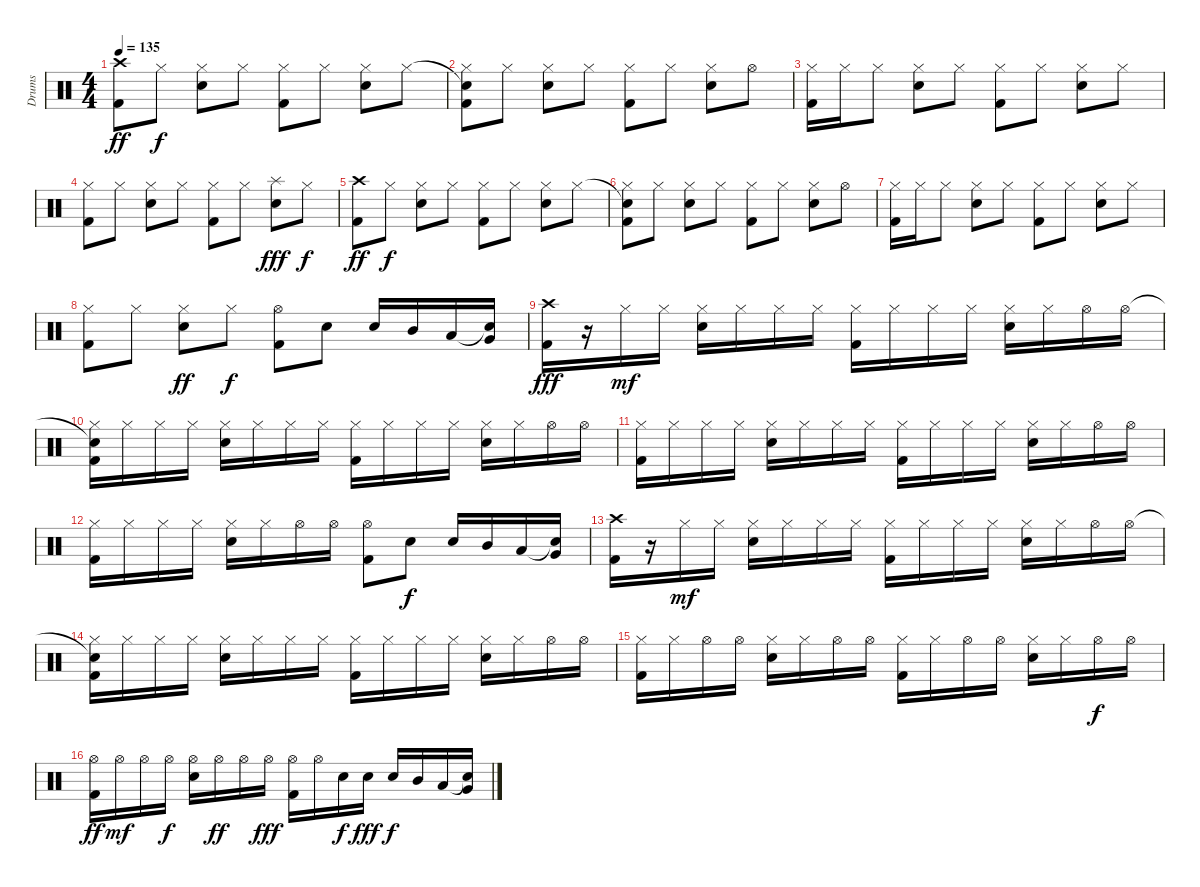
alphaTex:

\track ("Drums" "Drums") {instrument percussion}
\staff {score}
\articulation defaults
\ts (4 4)
\tempo 135
\clef neutral
\ks c
("Crash high (hit)" "Kick (hit) 2").8{dy ff} "Hi-Hat (closed)".8{dy f} ("Hi-Hat (closed)" "Snare (hit) 2").8 "Hi-Hat (closed)".8 ("Hi-Hat (closed)" "Kick (hit) 2").8 "Hi-Hat (closed)".8 ("Hi-Hat (closed)" "Snare (hit) 2").8 "Hi-Hat (closed)".8 |
("Snare (hit)"{t} "Hi-Hat (closed)" "Kick (hit) 2").8 "Hi-Hat (closed)".8 ("Hi-Hat (closed)" "Snare (hit) 2").8 "Hi-Hat (closed)".8 ("Hi-Hat (closed)" "Kick (hit) 2").8 "Hi-Hat (closed)".8 ("Hi-Hat (closed)" "Snare (hit) 2").8 "Hi-Hat (open)".8 |
("Hi-Hat (closed)" "Kick (hit) 2").16 "Hi-Hat (closed)".16 "Hi-Hat (closed)".8 ("Hi-Hat (closed)" "Snare (hit) 2").8 "Hi-Hat (closed)".8 ("Hi-Hat (closed)" "Kick (hit) 2").8 "Hi-Hat (closed)".8 ("Hi-Hat (closed)" "Snare (hit) 2").8 "Hi-Hat (closed)".8 |
("Hi-Hat (closed)" "Kick (hit) 2").8 "Hi-Hat (closed)".8 ("Hi-Hat (closed)" "Snare (hit) 2").8 "Hi-Hat (closed)".8 ("Hi-Hat (closed)" "Kick (hit) 2").8 "Hi-Hat (closed)".8 ("Splash (hit)" "Snare (hit) 2").8{dy fff} "Hi-Hat (closed)".8{dy f} |
("Crash high (hit)" "Kick (hit) 2").8{dy ff} "Hi-Hat (closed)".8{dy f} ("Hi-Hat (closed)" "Snare (hit) 2").8 "Hi-Hat (closed)".8 ("Hi-Hat (closed)" "Kick (hit) 2").8 "Hi-Hat (closed)".8 ("Hi-Hat (closed)" "Snare (hit) 2").8 "Hi-Hat (closed)".8 |
("Snare (hit)"{t} "Hi-Hat (closed)" "Kick (hit) 2").8 "Hi-Hat (closed)".8 ("Hi-Hat (closed)" "Snare (hit) 2").8 "Hi-Hat (closed)".8 ("Hi-Hat (closed)" "Kick (hit) 2").8 "Hi-Hat (closed)".8 ("Hi-Hat (closed)" "Snare (hit) 2").8 "Hi-Hat (open)".8 |
("Hi-Hat (closed)" "Kick (hit) 2").16 "Hi-Hat (closed)".16 "Hi-Hat (closed)".8 ("Hi-Hat (closed)" "Snare (hit) 2").8 "Hi-Hat (closed)".8 ("Hi-Hat (closed)" "Kick (hit) 2").8 "Hi-Hat (closed)".8 ("Hi-Hat (closed)" "Snare (hit) 2").8 "Hi-Hat (closed)".8 |
("Hi-Hat (closed)" "Kick (hit) 2").8 "Hi-Hat (closed)".8 ("Hi-Hat (closed)" "Snare (hit) 2").8{dy ff} "Hi-Hat (closed)".8{dy f} ("Hi-Hat (open)" "Kick (hit) 2").8 "Snare (hit) 2".8 "Snare (hit) 2".16 "Mid Tom (hit)".16 "Low Tom (hit)".16 ("Snare (hit)"{t} "Very Low Tom (hit)").16 |
("Crash high (hit)" "Kick (hit) 2").16{dy fff} r.16 "Hi-Hat (closed)".16{dy mf} "Hi-Hat (closed)".16 ("Hi-Hat (closed)" "Snare (hit) 2").16 "Hi-Hat (closed)".16 "Hi-Hat (closed)".16 "Hi-Hat (closed)".16 ("Hi-Hat (closed)" "Kick (hit) 2").16 "Hi-Hat (closed)".16 "Hi-Hat (closed)".16 "Hi-Hat (closed)".16 ("Hi-Hat (closed)" "Snare (hit) 2").16 "Hi-Hat (closed)".16 "Hi-Hat (open)".16 "Hi-Hat (open)".16 |
("Snare (hit)"{t} "Hi-Hat (closed)" "Kick (hit) 2").16 "Hi-Hat (closed)".16 "Hi-Hat (closed)".16 "Hi-Hat (closed)".16 ("Hi-Hat (closed)" "Snare (hit) 2").16 "Hi-Hat (closed)".16 "Hi-Hat (closed)".16 "Hi-Hat (closed)".16 ("Hi-Hat (closed)" "Kick (hit) 2").16 "Hi-Hat (closed)".16 "Hi-Hat (closed)".16 "Hi-Hat (closed)".16 ("Hi-Hat (closed)" "Snare (hit) 2").16 "Hi-Hat (closed)".16 "Hi-Hat (open)".16 "Hi-Hat (open)".16 |
("Hi-Hat (closed)" "Kick (hit) 2").16 "Hi-Hat (closed)".16 "Hi-Hat (closed)".16 "Hi-Hat (closed)".16 ("Hi-Hat (closed)" "Snare (hit) 2").16 "Hi-Hat (closed)".16 "Hi-Hat (closed)".16 "Hi-Hat (closed)".16 ("Hi-Hat (closed)" "Kick (hit) 2").16 "Hi-Hat (closed)".16 "Hi-Hat (closed)".16 "Hi-Hat (closed)".16 ("Hi-Hat (closed)" "Snare (hit) 2").16 "Hi-Hat (closed)".16 "Hi-Hat (open)".16 "Hi-Hat (open)".16 |
("Hi-Hat (closed)" "Kick (hit) 2").16 "Hi-Hat (closed)".16 "Hi-Hat (closed)".16 "Hi-Hat (closed)".16 ("Hi-Hat (closed)" "Snare (hit) 2").16 "Hi-Hat (closed)".16 "Hi-Hat (open)".16 "Hi-Hat (open)".16 ("Hi-Hat (open)" "Kick (hit) 2").8 "Snare (hit) 2".8{dy f} "Snare (hit) 2".16 "Mid Tom (hit)".16 "Low Tom (hit)".16 ("Snare (hit)"{t} "Very Low Tom (hit)").16 |
("Crash high (hit)" "Kick (hit) 2").16 r.16 "Hi-Hat (closed)".16{dy mf} "Hi-Hat (closed)".16 ("Hi-Hat (closed)" "Snare (hit) 2").16 "Hi-Hat (closed)".16 "Hi-Hat (closed)".16 "Hi-Hat (closed)".16 ("Hi-Hat (closed)" "Kick (hit) 2").16 "Hi-Hat (closed)".16 "Hi-Hat (closed)".16 "Hi-Hat (closed)".16 ("Hi-Hat (closed)" "Snare (hit) 2").16 "Hi-Hat (closed)".16 "Hi-Hat (open)".16 "Hi-Hat (open)".16 |
("Snare (hit)"{t} "Hi-Hat (closed)" "Kick (hit) 2").16 "Hi-Hat (closed)".16 "Hi-Hat (closed)".16 "Hi-Hat (closed)".16 ("Hi-Hat (closed)" "Snare (hit) 2").16 "Hi-Hat (closed)".16 "Hi-Hat (closed)".16 "Hi-Hat (closed)".16 ("Hi-Hat (closed)" "Kick (hit) 2").16 "Hi-Hat (closed)".16 "Hi-Hat (closed)".16 "Hi-Hat (closed)".16 ("Hi-Hat (closed)" "Snare (hit) 2").16 "Hi-Hat (closed)".16 "Hi-Hat (open)".16 "Hi-Hat (open)".16 |
("Hi-Hat (closed)" "Kick (hit) 2").16 "Hi-Hat (closed)".16 "Hi-Hat (open)".16 "Hi-Hat (open)".16 ("Hi-Hat (closed)" "Snare (hit) 2").16 "Hi-Hat (closed)".16 "Hi-Hat (open)".16 "Hi-Hat (open)".16 ("Hi-Hat (closed)" "Kick (hit) 2").16 "Hi-Hat (closed)".16 "Hi-Hat (open)".16 "Hi-Hat (open)".16 ("Hi-Hat (closed)" "Snare (hit) 2").16 "Hi-Hat (closed)".16 "Hi-Hat (open)".16{dy f} "Hi-Hat (open)".16 |
("Hi-Hat (open)" "Kick (hit) 2").16{dy ff} "Hi-Hat (open)".16{dy mf} "Hi-Hat (open)".16 "Hi-Hat (open)".16{dy f} ("Hi-Hat (open)" "Snare (hit) 2").16 "Hi-Hat (open)".16{dy ff} "Hi-Hat (open)".16 "Hi-Hat (open)".16{dy fff} ("Hi-Hat (open)" "Kick (hit) 2").16 "Hi-Hat (open)".16 "Snare (hit) 2".16{dy f} "Snare (hit) 2".16{dy fff} "Snare (hit) 2".16{dy f} "Mid Tom (hit)".16 "Low Tom (hit)".16 ("Snare (hit)"{t} "Very Low Tom (hit)").16
